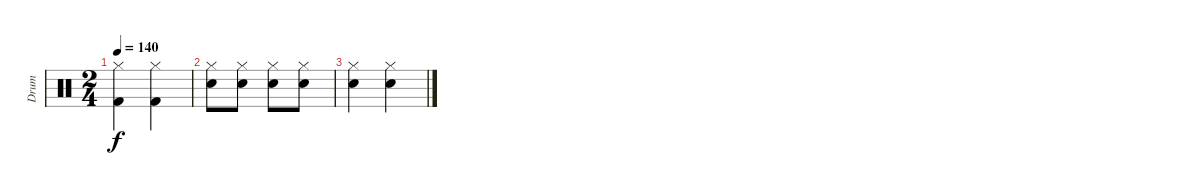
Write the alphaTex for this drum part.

\track ("Drum" "Drum") {instrument percussion}
\staff {score}
\articulation defaults
\ts (2 4)
\tempo 140
\clef neutral
\ks c
("Kick (hit) 2" "Hi-Hat (closed)").4{dy f} ("Kick (hit) 2" "Hi-Hat (closed)").4 |
("Electric Snare (hit)" "Hi-Hat (closed)").8 ("Electric Snare (hit)" "Hi-Hat (closed)").8 ("Electric Snare (hit)" "Hi-Hat (closed)").8 ("Electric Snare (hit)" "Hi-Hat (closed)").8 |
("Electric Snare (hit)" "Hi-Hat (closed)").4 ("Electric Snare (hit)" "Hi-Hat (closed)").4
